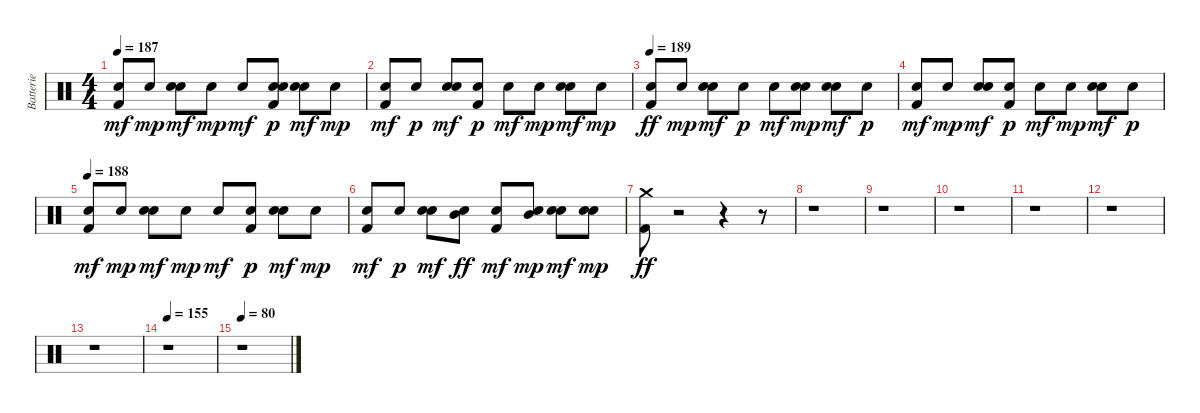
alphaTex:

\track ("Batterie            " "Batterie  ") {instrument percussion}
\staff {score}
\articulation defaults
\ts (4 4)
\tempo 187
\clef neutral
\ks c
("Kick (hit) 2" "Snare (hit) 2").8{dy mf} "Snare (hit) 2".8{dy mp} ("Hand Clap (hit)" "Snare (hit) 2").8{dy mf} "Snare (hit) 2".8{dy mp} "Snare (hit) 2".8{dy mf} ("Hand Clap (hit)" "Kick (hit) 2" "Snare (hit) 2").8{dy p} ("Hand Clap (hit)" "Snare (hit) 2").8{dy mf} "Snare (hit) 2".8{dy mp} |
("Kick (hit) 2" "Snare (hit) 2").8{dy mf} "Snare (hit) 2".8{dy p} ("Hand Clap (hit)" "Snare (hit) 2").8{dy mf} ("Kick (hit) 2" "Snare (hit) 2").8{dy p} "Snare (hit) 2".8{dy mf} "Snare (hit) 2".8{dy mp} ("Hand Clap (hit)" "Snare (hit) 2").8{dy mf} "Snare (hit) 2".8{dy mp} |
\tempo 189
("Kick (hit) 2" "Snare (hit) 2").8{dy ff} "Snare (hit) 2".8{dy mp} ("Hand Clap (hit)" "Snare (hit) 2").8{dy mf} "Snare (hit) 2".8{dy p} "Snare (hit) 2".8{dy mf} ("Hand Clap (hit)" "Snare (hit) 2").8{dy mp} ("Hand Clap (hit)" "Snare (hit) 2").8{dy mf} "Snare (hit) 2".8{dy p} |
("Kick (hit) 2" "Snare (hit) 2").8{dy mf} "Snare (hit) 2".8{dy mp} ("Hand Clap (hit)" "Snare (hit) 2").8{dy mf} ("Kick (hit) 2" "Snare (hit) 2").8{dy p} "Snare (hit) 2".8{dy mf} "Snare (hit) 2".8{dy mp} ("Hand Clap (hit)" "Snare (hit) 2").8{dy mf} "Snare (hit) 2".8{dy p} |
\tempo 188
("Kick (hit) 2" "Snare (hit) 2").8{dy mf} "Snare (hit) 2".8{dy mp} ("Hand Clap (hit)" "Snare (hit) 2").8{dy mf} "Snare (hit) 2".8{dy mp} "Snare (hit) 2".8{dy mf} ("Kick (hit) 2" "Snare (hit) 2").8{dy p} ("Hand Clap (hit)" "Snare (hit) 2").8{dy mf} "Snare (hit) 2".8{dy mp} |
("Kick (hit) 2" "Snare (hit) 2").8{dy mf} "Snare (hit) 2".8{dy p} ("Hand Clap (hit)" "Snare (hit) 2").8{dy mf} ("Snare (hit) 2" "Mid Tom (hit)").8{dy ff} ("Kick (hit) 2" "Snare (hit) 2").8{dy mf} ("Mid Tom (hit)" "Snare (hit) 2").8{dy mp} ("Hand Clap (hit)" "Snare (hit) 2").8{dy mf} ("Hand Clap (hit)" "Snare (hit) 2").8{dy mp} |
("Crash medium (hit)" "Kick (hit) 2").8{dy ff} r.2 r.4 r.8 |
r.1 |
r.1 |
r.1 |
r.1 |
r.1 |
r.1 |
\tempo 155
r.1 |
\tempo 80
r.1
